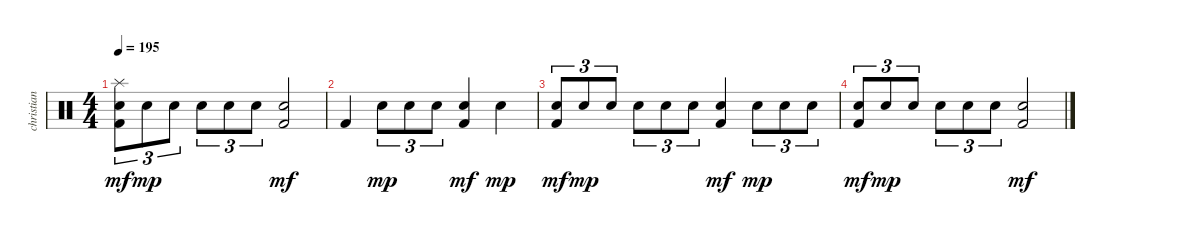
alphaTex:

\track ("christian" "christian") {instrument percussion}
\staff {score}
\articulation defaults
\ts (4 4)
\tempo 195
\clef neutral
\ks c
("Splash (hit)" "Electric Snare (hit)" "Kick (hit) 2").8{tu (3 2) dy mf} "Electric Snare (hit)".8{tu (3 2) dy mp} "Electric Snare (hit)".8{tu (3 2)} "Electric Snare (hit)".8{tu (3 2)} "Electric Snare (hit)".8{tu (3 2)} "Electric Snare (hit)".8{tu (3 2)} ("Electric Snare (hit)" "Kick (hit) 2").2{dy mf} |
"Kick (hit) 2".4 "Electric Snare (hit)".8{tu (3 2) dy mp} "Electric Snare (hit)".8{tu (3 2)} "Electric Snare (hit)".8{tu (3 2)} ("Electric Snare (hit)" "Kick (hit) 2").4{dy mf} "Electric Snare (hit)".4{dy mp} |
("Electric Snare (hit)" "Kick (hit) 2").8{tu (3 2) dy mf} "Electric Snare (hit)".8{tu (3 2) dy mp} "Electric Snare (hit)".8{tu (3 2)} "Electric Snare (hit)".8{tu (3 2)} "Electric Snare (hit)".8{tu (3 2)} "Electric Snare (hit)".8{tu (3 2)} ("Electric Snare (hit)" "Kick (hit) 2").4{dy mf} "Electric Snare (hit)".8{tu (3 2) dy mp} "Electric Snare (hit)".8{tu (3 2)} "Electric Snare (hit)".8{tu (3 2)} |
("Electric Snare (hit)" "Kick (hit) 2").8{tu (3 2) dy mf} "Electric Snare (hit)".8{tu (3 2) dy mp} "Electric Snare (hit)".8{tu (3 2)} "Electric Snare (hit)".8{tu (3 2)} "Electric Snare (hit)".8{tu (3 2)} "Electric Snare (hit)".8{tu (3 2)} ("Electric Snare (hit)" "Kick (hit) 2").2{dy mf}
